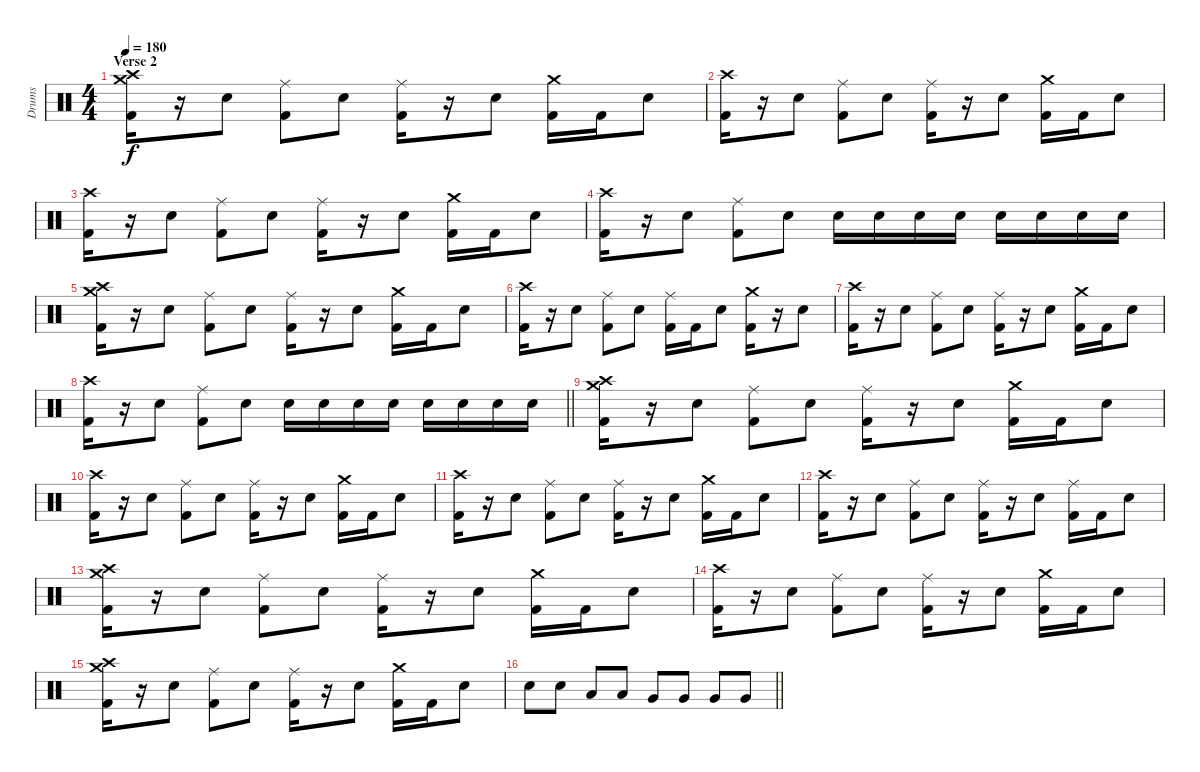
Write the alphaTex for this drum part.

\track ("Drums" "Drums") {instrument percussion}
\staff {score}
\articulation defaults
\ts (4 4)
\section ("" "Verse 2")
\tempo 180
\clef neutral
\ks c
("Crash high (hit)" "Crash medium (hit)" "Kick (hit) 2").16{dy f} r.16 "Electric Snare (hit)".8 ("Ride (middle)" "Kick (hit) 2").8 "Electric Snare (hit)".8 ("Ride (middle)" "Kick (hit) 2").16 r.16 "Electric Snare (hit)".8 ("Crash medium (hit)" "Kick (hit) 2").16 "Kick (hit) 2".16 "Electric Snare (hit)".8 |
("Crash high (hit)" "Kick (hit) 2").16 r.16 "Electric Snare (hit)".8 ("Ride (middle)" "Kick (hit) 2").8 "Electric Snare (hit)".8 ("Ride (middle)" "Kick (hit) 2").16 r.16 "Electric Snare (hit)".8 ("Crash medium (hit)" "Kick (hit) 2").16 "Kick (hit) 2".16 "Electric Snare (hit)".8 |
("Crash high (hit)" "Kick (hit) 2").16 r.16 "Electric Snare (hit)".8 ("Ride (middle)" "Kick (hit) 2").8 "Electric Snare (hit)".8 ("Ride (middle)" "Kick (hit) 2").16 r.16 "Electric Snare (hit)".8 ("Crash medium (hit)" "Kick (hit) 2").16 "Kick (hit) 2".16 "Electric Snare (hit)".8 |
("Crash high (hit)" "Kick (hit) 2").16 r.16 "Electric Snare (hit)".8 ("Ride (middle)" "Kick (hit) 2").8 "Electric Snare (hit)".8 "Electric Snare (hit)".16 "Electric Snare (hit)".16 "Electric Snare (hit)".16 "Electric Snare (hit)".16 "Electric Snare (hit)".16 "Electric Snare (hit)".16 "Electric Snare (hit)".16 "Electric Snare (hit)".16 |
("Crash high (hit)" "Crash medium (hit)" "Kick (hit) 2").16 r.16 "Electric Snare (hit)".8 ("Ride (middle)" "Kick (hit) 2").8 "Electric Snare (hit)".8 ("Ride (middle)" "Kick (hit) 2").16 r.16 "Electric Snare (hit)".8 ("Crash medium (hit)" "Kick (hit) 2").16 "Kick (hit) 2".16 "Electric Snare (hit)".8 |
("Crash high (hit)" "Kick (hit) 2").16 r.16 "Electric Snare (hit)".8 ("Ride (middle)" "Kick (hit) 2").8 "Electric Snare (hit)".8 ("Ride (middle)" "Kick (hit) 2").16 "Kick (hit) 2".16 "Electric Snare (hit)".8 ("Crash medium (hit)" "Kick (hit) 2").16 r.16 "Electric Snare (hit)".8 |
("Crash high (hit)" "Kick (hit) 2").16 r.16 "Electric Snare (hit)".8 ("Ride (middle)" "Kick (hit) 2").8 "Electric Snare (hit)".8 ("Ride (middle)" "Kick (hit) 2").16 r.16 "Electric Snare (hit)".8 ("Crash medium (hit)" "Kick (hit) 2").16 "Kick (hit) 2".16 "Electric Snare (hit)".8 |
\barLineRight lightlight
("Crash high (hit)" "Kick (hit) 2").16 r.16 "Electric Snare (hit)".8 ("Ride (middle)" "Kick (hit) 2").8 "Electric Snare (hit)".8 "Electric Snare (hit)".16 "Electric Snare (hit)".16 "Electric Snare (hit)".16 "Electric Snare (hit)".16 "Electric Snare (hit)".16 "Electric Snare (hit)".16 "Electric Snare (hit)".16 "Electric Snare (hit)".16 |
("Crash high (hit)" "Crash medium (hit)" "Kick (hit) 2").16 r.16 "Electric Snare (hit)".8 ("Ride (middle)" "Kick (hit) 2").8 "Electric Snare (hit)".8 ("Ride (middle)" "Kick (hit) 2").16 r.16 "Electric Snare (hit)".8 ("Crash medium (hit)" "Kick (hit) 2").16 "Kick (hit) 2".16 "Electric Snare (hit)".8 |
("Crash high (hit)" "Kick (hit) 2").16 r.16 "Electric Snare (hit)".8 ("Ride (middle)" "Kick (hit) 2").8 "Electric Snare (hit)".8 ("Ride (middle)" "Kick (hit) 2").16 r.16 "Electric Snare (hit)".8 ("Crash medium (hit)" "Kick (hit) 2").16 "Kick (hit) 2".16 "Electric Snare (hit)".8 |
("Crash high (hit)" "Kick (hit) 2").16 r.16 "Electric Snare (hit)".8 ("Ride (middle)" "Kick (hit) 2").8 "Electric Snare (hit)".8 ("Ride (middle)" "Kick (hit) 2").16 r.16 "Electric Snare (hit)".8 ("Crash medium (hit)" "Kick (hit) 2").16 "Kick (hit) 2".16 "Electric Snare (hit)".8 |
("Crash high (hit)" "Kick (hit) 2").16 r.16 "Electric Snare (hit)".8 ("Ride (middle)" "Kick (hit) 2").8 "Electric Snare (hit)".8 ("Ride (middle)" "Kick (hit) 2").16 r.16 "Electric Snare (hit)".8 ("Ride (middle)" "Kick (hit) 2").16 "Kick (hit) 2".16 "Electric Snare (hit)".8 |
("Crash high (hit)" "Crash medium (hit)" "Kick (hit) 2").16 r.16 "Electric Snare (hit)".8 ("Ride (middle)" "Kick (hit) 2").8 "Electric Snare (hit)".8 ("Ride (middle)" "Kick (hit) 2").16 r.16 "Electric Snare (hit)".8 ("Crash medium (hit)" "Kick (hit) 2").16 "Kick (hit) 2".16 "Electric Snare (hit)".8 |
("Crash high (hit)" "Kick (hit) 2").16 r.16 "Electric Snare (hit)".8 ("Ride (middle)" "Kick (hit) 2").8 "Electric Snare (hit)".8 ("Ride (middle)" "Kick (hit) 2").16 r.16 "Electric Snare (hit)".8 ("Crash medium (hit)" "Kick (hit) 2").16 "Kick (hit) 2".16 "Electric Snare (hit)".8 |
("Crash high (hit)" "Crash medium (hit)" "Kick (hit) 2").16 r.16 "Electric Snare (hit)".8 ("Ride (middle)" "Kick (hit) 2").8 "Electric Snare (hit)".8 ("Ride (middle)" "Kick (hit) 2").16 r.16 "Electric Snare (hit)".8 ("Crash medium (hit)" "Kick (hit) 2").16 "Kick (hit) 2".16 "Electric Snare (hit)".8 |
\barLineRight lightlight "Electric Snare (hit)".8 "Electric Snare (hit)".8 "Low Tom (hit)".8 "Low Tom (hit)".8 "Very Low Tom (hit)".8 "Very Low Tom (hit)".8 "Very Low Tom (hit)".8 "Very Low Tom (hit)".8
